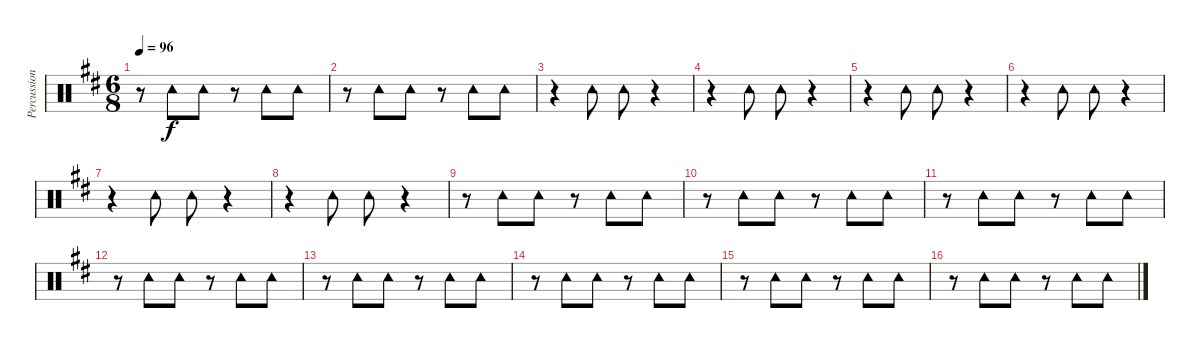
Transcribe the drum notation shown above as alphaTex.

\track ("Percussion" "Percussion") {instrument percussion}
\staff {score}
\articulation defaults
\ts (6 8)
\tempo 96
\clef neutral
\ks bminor
r.8{dy f} "Tambourine (hit)".8 "Tambourine (hit)".8 r.8 "Tambourine (hit)".8 "Tambourine (hit)".8 |
r.8 "Tambourine (hit)".8 "Tambourine (hit)".8 r.8 "Tambourine (hit)".8 "Tambourine (hit)".8 |
r.4 "Tambourine (hit)".8 "Tambourine (hit)".8 r.4 |
r.4 "Tambourine (hit)".8 "Tambourine (hit)".8 r.4 |
r.4 "Tambourine (hit)".8 "Tambourine (hit)".8 r.4 |
r.4 "Tambourine (hit)".8 "Tambourine (hit)".8 r.4 |
r.4 "Tambourine (hit)".8 "Tambourine (hit)".8 r.4 |
r.4 "Tambourine (hit)".8 "Tambourine (hit)".8 r.4 |
r.8 "Tambourine (hit)".8 "Tambourine (hit)".8 r.8 "Tambourine (hit)".8 "Tambourine (hit)".8 |
r.8 "Tambourine (hit)".8 "Tambourine (hit)".8 r.8 "Tambourine (hit)".8 "Tambourine (hit)".8 |
r.8 "Tambourine (hit)".8 "Tambourine (hit)".8 r.8 "Tambourine (hit)".8 "Tambourine (hit)".8 |
r.8 "Tambourine (hit)".8 "Tambourine (hit)".8 r.8 "Tambourine (hit)".8 "Tambourine (hit)".8 |
r.8 "Tambourine (hit)".8 "Tambourine (hit)".8 r.8 "Tambourine (hit)".8 "Tambourine (hit)".8 |
r.8 "Tambourine (hit)".8 "Tambourine (hit)".8 r.8 "Tambourine (hit)".8 "Tambourine (hit)".8 |
r.8 "Tambourine (hit)".8 "Tambourine (hit)".8 r.8 "Tambourine (hit)".8 "Tambourine (hit)".8 |
r.8 "Tambourine (hit)".8 "Tambourine (hit)".8 r.8 "Tambourine (hit)".8 "Tambourine (hit)".8
